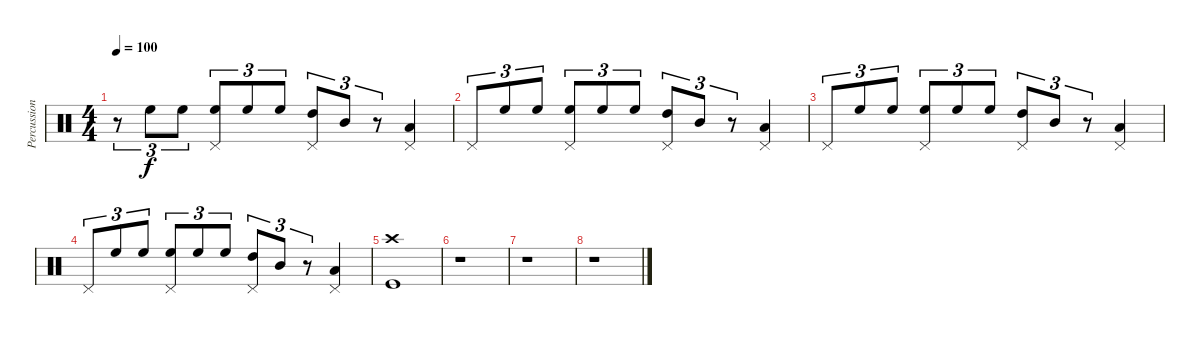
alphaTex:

\track ("Percussions" "Percussion") {instrument percussion}
\staff {score}
\articulation defaults
\ts (4 4)
\tempo 100
\clef neutral
\ks c
r.8{tu (3 2) dy f} "High Floor Tom (hit)".8{tu (3 2)} "High Floor Tom (hit)".8{tu (3 2)} ("High Floor Tom (hit)" "Pedal Hi-Hat (hit)").8{tu (3 2)} "High Floor Tom (hit)".8{tu (3 2)} "High Floor Tom (hit)".8{tu (3 2)} ("High Tom (hit)" "Pedal Hi-Hat (hit)").8{tu (3 2)} "Mid Tom (hit)".8{tu (3 2)} r.8{tu (3 2)} ("Low Tom (hit)" "Pedal Hi-Hat (hit)").4 |
"Pedal Hi-Hat (hit)".8{tu (3 2)} "High Floor Tom (hit)".8{tu (3 2)} "High Floor Tom (hit)".8{tu (3 2)} ("High Floor Tom (hit)" "Pedal Hi-Hat (hit)").8{tu (3 2)} "High Floor Tom (hit)".8{tu (3 2)} "High Floor Tom (hit)".8{tu (3 2)} ("High Tom (hit)" "Pedal Hi-Hat (hit)").8{tu (3 2)} "Mid Tom (hit)".8{tu (3 2)} r.8{tu (3 2)} ("Low Tom (hit)" "Pedal Hi-Hat (hit)").4 |
"Pedal Hi-Hat (hit)".8{tu (3 2)} "High Floor Tom (hit)".8{tu (3 2)} "High Floor Tom (hit)".8{tu (3 2)} ("High Floor Tom (hit)" "Pedal Hi-Hat (hit)").8{tu (3 2)} "High Floor Tom (hit)".8{tu (3 2)} "High Floor Tom (hit)".8{tu (3 2)} ("High Tom (hit)" "Pedal Hi-Hat (hit)").8{tu (3 2)} "Mid Tom (hit)".8{tu (3 2)} r.8{tu (3 2)} ("Low Tom (hit)" "Pedal Hi-Hat (hit)").4 |
"Pedal Hi-Hat (hit)".8{tu (3 2)} "High Floor Tom (hit)".8{tu (3 2)} "High Floor Tom (hit)".8{tu (3 2)} ("High Floor Tom (hit)" "Pedal Hi-Hat (hit)").8{tu (3 2)} "High Floor Tom (hit)".8{tu (3 2)} "High Floor Tom (hit)".8{tu (3 2)} ("High Tom (hit)" "Pedal Hi-Hat (hit)").8{tu (3 2)} "Mid Tom (hit)".8{tu (3 2)} r.8{tu (3 2)} ("Low Tom (hit)" "Pedal Hi-Hat (hit)").4 |
("Crash high (hit)" "Kick (hit)").1 |
r.1 |
r.1 |
r.1
